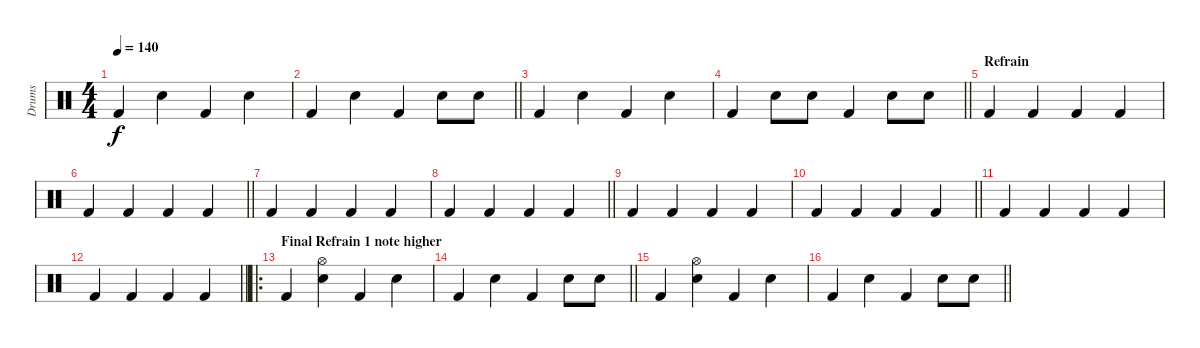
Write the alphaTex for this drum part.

\track ("Drums" "Drums") {instrument percussion}
\staff {score}
\articulation defaults
\ts (4 4)
\tempo 140
\clef neutral
\ks c "Kick (hit) 2".4{dy f} "Snare (hit) 2".4 "Kick (hit) 2".4 "Snare (hit) 2".4
|
\barLineRight lightlight "Kick (hit) 2".4 "Snare (hit) 2".4 "Kick (hit) 2".4 "Snare (hit) 2".8 "Snare (hit) 2".8
|
"Kick (hit) 2".4 "Snare (hit) 2".4 "Kick (hit) 2".4 "Snare (hit) 2".4 |
\barLineRight lightlight "Kick (hit) 2".4 "Snare (hit) 2".8 "Snare (hit) 2".8 "Kick (hit) 2".4 "Snare (hit) 2".8 "Snare (hit) 2".8
|
\section ("" "Refrain")
"Kick (hit) 2".4 "Kick (hit) 2".4 "Kick (hit) 2".4 "Kick (hit) 2".4 |
\barLineRight lightlight "Kick (hit) 2".4 "Kick (hit) 2".4 "Kick (hit) 2".4 "Kick (hit) 2".4
|
"Kick (hit) 2".4 "Kick (hit) 2".4 "Kick (hit) 2".4 "Kick (hit) 2".4 |
\barLineRight lightlight "Kick (hit) 2".4 "Kick (hit) 2".4 "Kick (hit) 2".4 "Kick (hit) 2".4
|
"Kick (hit) 2".4 "Kick (hit) 2".4 "Kick (hit) 2".4 "Kick (hit) 2".4 |
\barLineRight lightlight "Kick (hit) 2".4 "Kick (hit) 2".4 "Kick (hit) 2".4 "Kick (hit) 2".4
|
"Kick (hit) 2".4 "Kick (hit) 2".4 "Kick (hit) 2".4 "Kick (hit) 2".4 |
\barLineRight lightlight "Kick (hit) 2".4 "Kick (hit) 2".4 "Kick (hit) 2".4 "Kick (hit) 2".4
|
\ro
\section ("" "Final Refrain 1 note higher")
"Kick (hit) 2".4 ("Snare (hit) 2" "Hi-Hat (open)").4 "Kick (hit) 2".4 "Snare (hit) 2".4 |
\barLineRight lightlight "Kick (hit) 2".4 "Snare (hit) 2".4 "Kick (hit) 2".4 "Snare (hit) 2".8 "Snare (hit) 2".8
|
"Kick (hit) 2".4 ("Snare (hit) 2" "Hi-Hat (open)").4 "Kick (hit) 2".4 "Snare (hit) 2".4 |
\barLineRight lightlight "Kick (hit) 2".4 "Snare (hit) 2".4 "Kick (hit) 2".4 "Snare (hit) 2".8 "Snare (hit) 2".8
